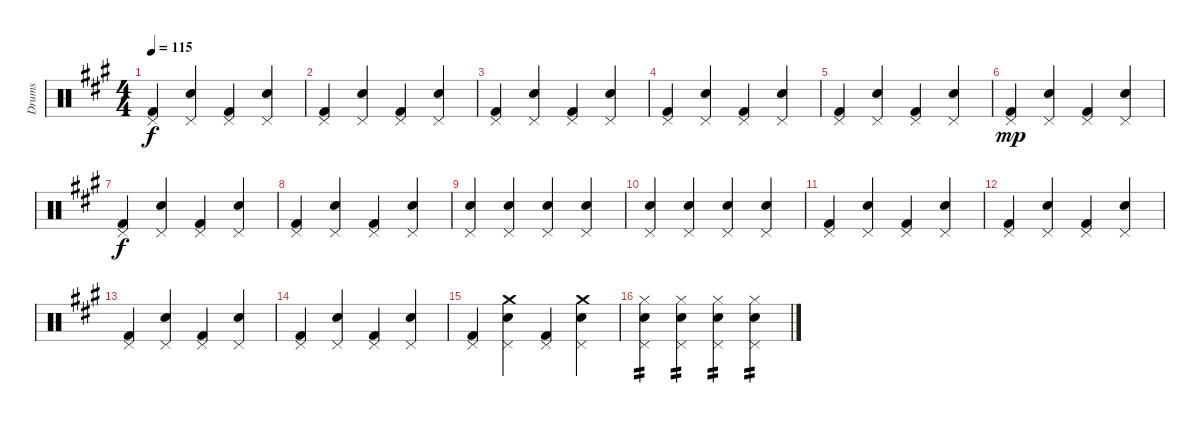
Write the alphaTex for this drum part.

\track ("Drums" "Drums") {instrument percussion}
\staff {score}
\articulation defaults
\ts (4 4)
\tempo 115
\clef neutral
\ks a
("Kick (hit) 2" "Pedal Hi-Hat (hit)").4{dy f} ("Snare (hit) 2" "Pedal Hi-Hat (hit)").4 ("Kick (hit) 2" "Pedal Hi-Hat (hit)").4 ("Snare (hit) 2" "Pedal Hi-Hat (hit)").4 |
("Kick (hit) 2" "Pedal Hi-Hat (hit)").4 ("Snare (hit) 2" "Pedal Hi-Hat (hit)").4 ("Kick (hit) 2" "Pedal Hi-Hat (hit)").4 ("Snare (hit) 2" "Pedal Hi-Hat (hit)").4 |
("Kick (hit) 2" "Pedal Hi-Hat (hit)").4 ("Snare (hit) 2" "Pedal Hi-Hat (hit)").4 ("Kick (hit) 2" "Pedal Hi-Hat (hit)").4 ("Snare (hit) 2" "Pedal Hi-Hat (hit)").4 |
("Kick (hit) 2" "Pedal Hi-Hat (hit)").4 ("Snare (hit) 2" "Pedal Hi-Hat (hit)").4 ("Kick (hit) 2" "Pedal Hi-Hat (hit)").4 ("Snare (hit) 2" "Pedal Hi-Hat (hit)").4 |
("Kick (hit) 2" "Pedal Hi-Hat (hit)").4 ("Snare (hit) 2" "Pedal Hi-Hat (hit)").4 ("Kick (hit) 2" "Pedal Hi-Hat (hit)").4 ("Snare (hit) 2" "Pedal Hi-Hat (hit)").4 |
("Kick (hit) 2" "Pedal Hi-Hat (hit)").4{dy mp} ("Snare (hit) 2" "Pedal Hi-Hat (hit)").4 ("Kick (hit) 2" "Pedal Hi-Hat (hit)").4 ("Snare (hit) 2" "Pedal Hi-Hat (hit)").4 |
("Kick (hit) 2" "Pedal Hi-Hat (hit)").4{dy f} ("Snare (hit) 2" "Pedal Hi-Hat (hit)").4 ("Kick (hit) 2" "Pedal Hi-Hat (hit)").4 ("Snare (hit) 2" "Pedal Hi-Hat (hit)").4 |
("Kick (hit) 2" "Pedal Hi-Hat (hit)").4 ("Snare (hit) 2" "Pedal Hi-Hat (hit)").4 ("Kick (hit) 2" "Pedal Hi-Hat (hit)").4 ("Snare (hit) 2" "Pedal Hi-Hat (hit)").4 |
("Snare (hit) 2" "Pedal Hi-Hat (hit)").4 ("Snare (hit) 2" "Pedal Hi-Hat (hit)").4 ("Snare (hit) 2" "Pedal Hi-Hat (hit)").4 ("Snare (hit) 2" "Pedal Hi-Hat (hit)").4 |
("Snare (hit) 2" "Pedal Hi-Hat (hit)").4 ("Snare (hit) 2" "Pedal Hi-Hat (hit)").4 ("Snare (hit) 2" "Pedal Hi-Hat (hit)").4 ("Snare (hit) 2" "Pedal Hi-Hat (hit)").4 |
("Kick (hit) 2" "Pedal Hi-Hat (hit)").4 ("Snare (hit) 2" "Pedal Hi-Hat (hit)").4 ("Kick (hit) 2" "Pedal Hi-Hat (hit)").4 ("Snare (hit) 2" "Pedal Hi-Hat (hit)").4 |
("Kick (hit) 2" "Pedal Hi-Hat (hit)").4 ("Snare (hit) 2" "Pedal Hi-Hat (hit)").4 ("Kick (hit) 2" "Pedal Hi-Hat (hit)").4 ("Snare (hit) 2" "Pedal Hi-Hat (hit)").4 |
("Kick (hit) 2" "Pedal Hi-Hat (hit)").4 ("Snare (hit) 2" "Pedal Hi-Hat (hit)").4 ("Kick (hit) 2" "Pedal Hi-Hat (hit)").4 ("Snare (hit) 2" "Pedal Hi-Hat (hit)").4 |
("Kick (hit) 2" "Pedal Hi-Hat (hit)").4 ("Snare (hit) 2" "Pedal Hi-Hat (hit)").4 ("Kick (hit) 2" "Pedal Hi-Hat (hit)").4 ("Snare (hit) 2" "Pedal Hi-Hat (hit)").4 |
("Kick (hit) 2" "Pedal Hi-Hat (hit)").4 ("Snare (hit) 2" "Pedal Hi-Hat (hit)" "Crash medium (hit)").4 ("Kick (hit) 2" "Pedal Hi-Hat (hit)").4 ("Snare (hit) 2" "Pedal Hi-Hat (hit)" "Crash medium (hit)").4 |
("Snare (hit) 2" "Pedal Hi-Hat (hit)" "Hi-Hat (closed)").4{tp 2} ("Snare (hit) 2" "Pedal Hi-Hat (hit)" "Hi-Hat (closed)").4{tp 2} ("Snare (hit) 2" "Pedal Hi-Hat (hit)" "Hi-Hat (closed)").4{tp 2} ("Snare (hit) 2" "Pedal Hi-Hat (hit)" "Hi-Hat (closed)").4{tp 2}
